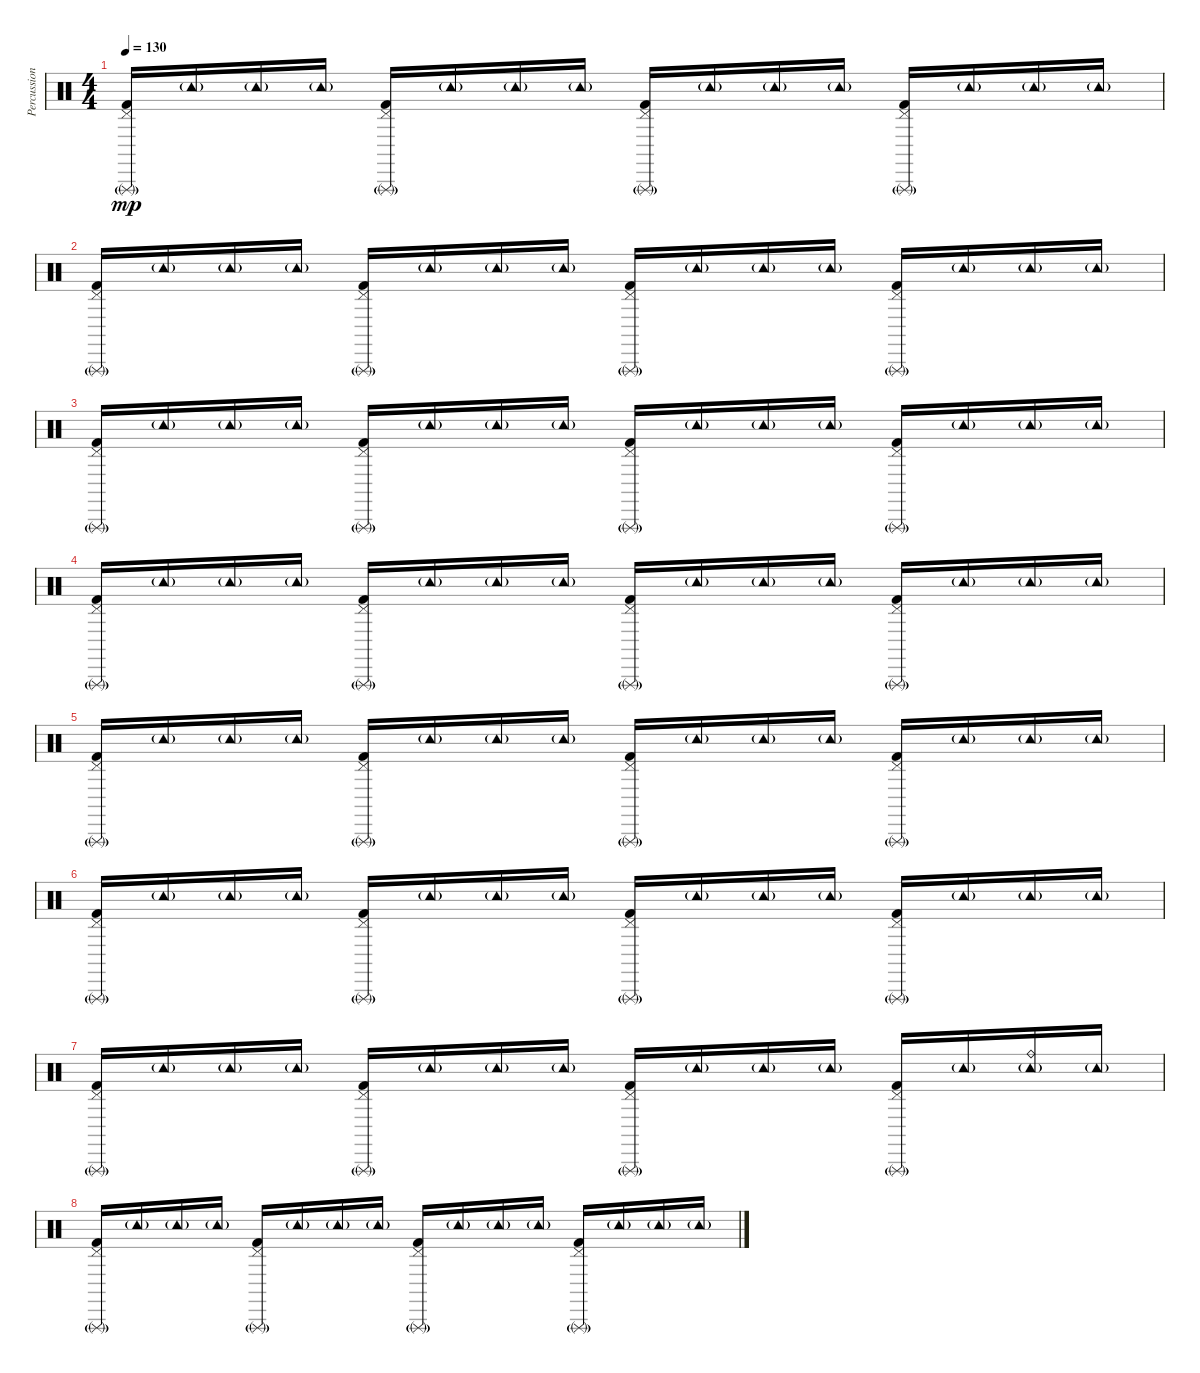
\track ("Percussion" "Percussion") {instrument percussion}
\staff {score}
\articulation defaults
\ts (4 4)
\tempo 130
\clef neutral
\ks c
("Triangle (rnute)"{g} "Pedal Hi-Hat (hit)" "Kick (hit) 2").16{dy mp} "Tambourine (hit)"{g}.16 "Tambourine (hit)"{g}.16 "Tambourine (hit)"{g}.16 ("Triangle (rnute)"{g} "Pedal Hi-Hat (hit)" "Kick (hit) 2").16 "Tambourine (hit)"{g}.16 "Tambourine (hit)"{g}.16 "Tambourine (hit)"{g}.16 ("Triangle (rnute)"{g} "Pedal Hi-Hat (hit)" "Kick (hit) 2").16 "Tambourine (hit)"{g}.16 "Tambourine (hit)"{g}.16 "Tambourine (hit)"{g}.16 ("Triangle (rnute)"{g} "Pedal Hi-Hat (hit)" "Kick (hit) 2").16 "Tambourine (hit)"{g}.16 "Tambourine (hit)"{g}.16 "Tambourine (hit)"{g}.16 |
("Triangle (rnute)"{g} "Pedal Hi-Hat (hit)" "Kick (hit) 2").16 "Tambourine (hit)"{g}.16 "Tambourine (hit)"{g}.16 "Tambourine (hit)"{g}.16 ("Triangle (rnute)"{g} "Pedal Hi-Hat (hit)" "Kick (hit) 2").16 "Tambourine (hit)"{g}.16 "Tambourine (hit)"{g}.16 "Tambourine (hit)"{g}.16 ("Triangle (rnute)"{g} "Pedal Hi-Hat (hit)" "Kick (hit) 2").16 "Tambourine (hit)"{g}.16 "Tambourine (hit)"{g}.16 "Tambourine (hit)"{g}.16 ("Triangle (rnute)"{g} "Pedal Hi-Hat (hit)" "Kick (hit) 2").16 "Tambourine (hit)"{g}.16 "Tambourine (hit)"{g}.16 "Tambourine (hit)"{g}.16 |
("Triangle (rnute)"{g} "Pedal Hi-Hat (hit)" "Kick (hit) 2").16 "Tambourine (hit)"{g}.16 "Tambourine (hit)"{g}.16 "Tambourine (hit)"{g}.16 ("Triangle (rnute)"{g} "Pedal Hi-Hat (hit)" "Kick (hit) 2").16 "Tambourine (hit)"{g}.16 "Tambourine (hit)"{g}.16 "Tambourine (hit)"{g}.16 ("Triangle (rnute)"{g} "Pedal Hi-Hat (hit)" "Kick (hit) 2").16 "Tambourine (hit)"{g}.16 "Tambourine (hit)"{g}.16 "Tambourine (hit)"{g}.16 ("Triangle (rnute)"{g} "Pedal Hi-Hat (hit)" "Kick (hit) 2").16 "Tambourine (hit)"{g}.16 "Tambourine (hit)"{g}.16 "Tambourine (hit)"{g}.16 |
("Triangle (rnute)"{g} "Pedal Hi-Hat (hit)" "Kick (hit) 2").16 "Tambourine (hit)"{g}.16 "Tambourine (hit)"{g}.16 "Tambourine (hit)"{g}.16 ("Triangle (rnute)"{g} "Pedal Hi-Hat (hit)" "Kick (hit) 2").16 "Tambourine (hit)"{g}.16 "Tambourine (hit)"{g}.16 "Tambourine (hit)"{g}.16 ("Triangle (rnute)"{g} "Pedal Hi-Hat (hit)" "Kick (hit) 2").16 "Tambourine (hit)"{g}.16 "Tambourine (hit)"{g}.16 "Tambourine (hit)"{g}.16 ("Triangle (rnute)"{g} "Pedal Hi-Hat (hit)" "Kick (hit) 2").16 "Tambourine (hit)"{g}.16 "Tambourine (hit)"{g}.16 "Tambourine (hit)"{g}.16 |
("Triangle (rnute)"{g} "Pedal Hi-Hat (hit)" "Kick (hit) 2").16 "Tambourine (hit)"{g}.16 "Tambourine (hit)"{g}.16 "Tambourine (hit)"{g}.16 ("Triangle (rnute)"{g} "Pedal Hi-Hat (hit)" "Kick (hit) 2").16 "Tambourine (hit)"{g}.16 "Tambourine (hit)"{g}.16 "Tambourine (hit)"{g}.16 ("Triangle (rnute)"{g} "Pedal Hi-Hat (hit)" "Kick (hit) 2").16 "Tambourine (hit)"{g}.16 "Tambourine (hit)"{g}.16 "Tambourine (hit)"{g}.16 ("Triangle (rnute)"{g} "Pedal Hi-Hat (hit)" "Kick (hit) 2").16 "Tambourine (hit)"{g}.16 "Tambourine (hit)"{g}.16 "Tambourine (hit)"{g}.16 |
("Triangle (rnute)"{g} "Pedal Hi-Hat (hit)" "Kick (hit) 2").16 "Tambourine (hit)"{g}.16 "Tambourine (hit)"{g}.16 "Tambourine (hit)"{g}.16 ("Triangle (rnute)"{g} "Pedal Hi-Hat (hit)" "Kick (hit) 2").16 "Tambourine (hit)"{g}.16 "Tambourine (hit)"{g}.16 "Tambourine (hit)"{g}.16 ("Triangle (rnute)"{g} "Pedal Hi-Hat (hit)" "Kick (hit) 2").16 "Tambourine (hit)"{g}.16 "Tambourine (hit)"{g}.16 "Tambourine (hit)"{g}.16 ("Triangle (rnute)"{g} "Pedal Hi-Hat (hit)" "Kick (hit) 2").16 "Tambourine (hit)"{g}.16 "Tambourine (hit)"{g}.16 "Tambourine (hit)"{g}.16 |
("Triangle (rnute)"{g} "Pedal Hi-Hat (hit)" "Kick (hit) 2").16 "Tambourine (hit)"{g}.16 "Tambourine (hit)"{g}.16 "Tambourine (hit)"{g}.16 ("Triangle (rnute)"{g} "Pedal Hi-Hat (hit)" "Kick (hit) 2").16 "Tambourine (hit)"{g}.16 "Tambourine (hit)"{g}.16 "Tambourine (hit)"{g}.16 ("Triangle (rnute)"{g} "Pedal Hi-Hat (hit)" "Kick (hit) 2").16 "Tambourine (hit)"{g}.16 "Tambourine (hit)"{g}.16 "Tambourine (hit)"{g}.16 ("Triangle (rnute)"{g} "Pedal Hi-Hat (hit)" "Kick (hit) 2").16 "Tambourine (hit)"{g}.16 ("Ride (bell)" "Tambourine (hit)"{g}).16 "Tambourine (hit)"{g}.16 |
("Triangle (rnute)"{g} "Pedal Hi-Hat (hit)" "Kick (hit) 2").16 "Tambourine (hit)"{g}.16 "Tambourine (hit)"{g}.16 "Tambourine (hit)"{g}.16 ("Triangle (rnute)"{g} "Pedal Hi-Hat (hit)" "Kick (hit) 2").16 "Tambourine (hit)"{g}.16 "Tambourine (hit)"{g}.16 "Tambourine (hit)"{g}.16 ("Triangle (rnute)"{g} "Pedal Hi-Hat (hit)" "Kick (hit) 2").16 "Tambourine (hit)"{g}.16 "Tambourine (hit)"{g}.16 "Tambourine (hit)"{g}.16 ("Triangle (rnute)"{g} "Pedal Hi-Hat (hit)" "Kick (hit) 2").16 "Tambourine (hit)"{g}.16 "Tambourine (hit)"{g}.16 "Tambourine (hit)"{g}.16
